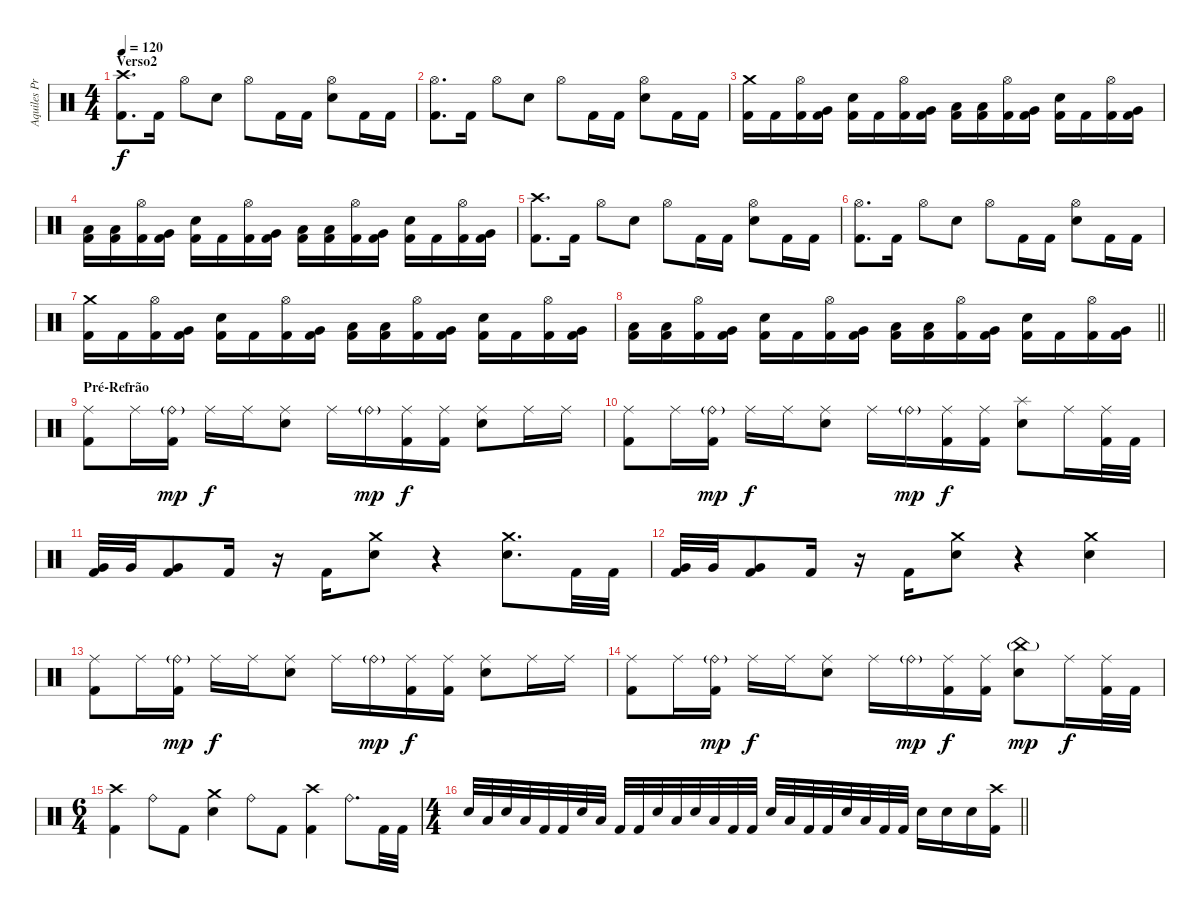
\track ("Aquiles Priester" "Aquiles Pr") {instrument percussion}
\staff {score}
\articulation defaults
\ts (4 4)
\section ("" "Verso2")
\tempo 120
\clef neutral
\ks c
("Crash high (hit)" "Kick (hit) 2").8{d dy f} "Kick (hit) 2".16 "Hi-Hat (open)".8 "Electric Snare (hit)".8 "Hi-Hat (open)".8 "Kick (hit) 2".16 "Kick (hit) 2".16 ("Hi-Hat (open)" "Electric Snare (hit)").8 "Kick (hit) 2".16 "Kick (hit) 2".16 |
("Hi-Hat (open)" "Kick (hit) 2").8{d} "Kick (hit) 2".16 "Hi-Hat (open)".8 "Electric Snare (hit)".8 "Hi-Hat (open)".8 "Kick (hit) 2".16 "Kick (hit) 2".16 ("Hi-Hat (open)" "Electric Snare (hit)").8 "Kick (hit) 2".16 "Kick (hit) 2".16 |
("Crash medium (hit)" "Kick (hit) 2").16 "Kick (hit) 2".16 ("Hi-Hat (open)" "Kick (hit) 2").16 ("Very Low Tom (hit)" "Kick (hit) 2").16 ("Electric Snare (hit)" "Kick (hit) 2").16 "Kick (hit) 2".16 ("Hi-Hat (open)" "Kick (hit) 2").16 ("Very Low Tom (hit)" "Kick (hit) 2").16 ("Low Tom (hit)" "Kick (hit) 2").16 ("Low Tom (hit)" "Kick (hit) 2").16 ("Hi-Hat (open)" "Kick (hit) 2").16 ("Very Low Tom (hit)" "Kick (hit) 2").16 ("Electric Snare (hit)" "Kick (hit) 2").16 "Kick (hit) 2".16 ("Hi-Hat (open)" "Kick (hit) 2").16 ("Very Low Tom (hit)" "Kick (hit) 2").16 |
("Low Tom (hit)" "Kick (hit) 2").16 ("Low Tom (hit)" "Kick (hit) 2").16 ("Hi-Hat (open)" "Kick (hit) 2").16 ("Very Low Tom (hit)" "Kick (hit) 2").16 ("Electric Snare (hit)" "Kick (hit) 2").16 "Kick (hit) 2".16 ("Hi-Hat (open)" "Kick (hit) 2").16 ("Very Low Tom (hit)" "Kick (hit) 2").16 ("Low Tom (hit)" "Kick (hit) 2").16 ("Low Tom (hit)" "Kick (hit) 2").16 ("Hi-Hat (open)" "Kick (hit) 2").16 ("Very Low Tom (hit)" "Kick (hit) 2").16 ("Electric Snare (hit)" "Kick (hit) 2").16 "Kick (hit) 2".16 ("Hi-Hat (open)" "Kick (hit) 2").16 ("Very Low Tom (hit)" "Kick (hit) 2").16 |
("Crash high (hit)" "Kick (hit) 2").8{d} "Kick (hit) 2".16 "Hi-Hat (open)".8 "Electric Snare (hit)".8 "Hi-Hat (open)".8 "Kick (hit) 2".16 "Kick (hit) 2".16 ("Hi-Hat (open)" "Electric Snare (hit)").8 "Kick (hit) 2".16 "Kick (hit) 2".16 |
("Hi-Hat (open)" "Kick (hit) 2").8{d} "Kick (hit) 2".16 "Hi-Hat (open)".8 "Electric Snare (hit)".8 "Hi-Hat (open)".8 "Kick (hit) 2".16 "Kick (hit) 2".16 ("Hi-Hat (open)" "Electric Snare (hit)").8 "Kick (hit) 2".16 "Kick (hit) 2".16 |
("Crash medium (hit)" "Kick (hit) 2").16 "Kick (hit) 2".16 ("Hi-Hat (open)" "Kick (hit) 2").16 ("Very Low Tom (hit)" "Kick (hit) 2").16 ("Electric Snare (hit)" "Kick (hit) 2").16 "Kick (hit) 2".16 ("Hi-Hat (open)" "Kick (hit) 2").16 ("Very Low Tom (hit)" "Kick (hit) 2").16 ("Low Tom (hit)" "Kick (hit) 2").16 ("Low Tom (hit)" "Kick (hit) 2").16 ("Hi-Hat (open)" "Kick (hit) 2").16 ("Very Low Tom (hit)" "Kick (hit) 2").16 ("Electric Snare (hit)" "Kick (hit) 2").16 "Kick (hit) 2".16 ("Hi-Hat (open)" "Kick (hit) 2").16 ("Very Low Tom (hit)" "Kick (hit) 2").16 |
\barLineRight lightlight
("Low Tom (hit)" "Kick (hit) 2").16 ("Low Tom (hit)" "Kick (hit) 2").16 ("Hi-Hat (open)" "Kick (hit) 2").16 ("Very Low Tom (hit)" "Kick (hit) 2").16 ("Electric Snare (hit)" "Kick (hit) 2").16 "Kick (hit) 2".16 ("Hi-Hat (open)" "Kick (hit) 2").16 ("Very Low Tom (hit)" "Kick (hit) 2").16 ("Low Tom (hit)" "Kick (hit) 2").16 ("Low Tom (hit)" "Kick (hit) 2").16 ("Hi-Hat (open)" "Kick (hit) 2").16 ("Very Low Tom (hit)" "Kick (hit) 2").16 ("Electric Snare (hit)" "Kick (hit) 2").16 "Kick (hit) 2".16 ("Hi-Hat (open)" "Kick (hit) 2").16 ("Very Low Tom (hit)" "Kick (hit) 2").16 |
\section ("" "Pré-Refrão")
("Ride (middle)" "Kick (hit) 2").8 "Ride (middle)".16 ("Ride (bell)"{g} "Kick (hit) 2").16{dy mp} "Ride (middle)".16{dy f} "Ride (middle)".16 ("Ride (middle)" "Electric Snare (hit)").8 "Ride (middle)".16 "Ride (bell)"{g}.16{dy mp} ("Ride (middle)" "Kick (hit) 2").16{dy f} ("Ride (middle)" "Kick (hit) 2").16 ("Ride (middle)" "Electric Snare (hit)").8 "Ride (middle)".16 "Ride (middle)".16 |
("Ride (middle)" "Kick (hit) 2").8 "Ride (middle)".16 ("Ride (bell)"{g} "Kick (hit) 2").16{dy mp} "Ride (middle)".16{dy f} "Ride (middle)".16 ("Ride (middle)" "Electric Snare (hit)").8 "Ride (middle)".16 "Ride (bell)"{g}.16{dy mp} ("Ride (middle)" "Kick (hit) 2").16{dy f} ("Ride (middle)" "Kick (hit) 2").16 ("Splash (hit)" "Electric Snare (hit)").8 "Ride (middle)".16 ("Ride (middle)" "Kick (hit) 2").32 "Kick (hit) 2".32 |
("Very Low Tom (hit)" "Kick (hit) 2").32 "Very Low Tom (hit)".32 ("Very Low Tom (hit)" "Kick (hit) 2").8 "Kick (hit) 2".16 r.16 "Kick (hit) 2".16 ("Crash medium (hit)" "Electric Snare (hit)").8 r.4 ("Crash medium (hit)" "Electric Snare (hit)").8{d} "Kick (hit) 2".32 "Kick (hit) 2".32 |
("Very Low Tom (hit)" "Kick (hit) 2").32 "Very Low Tom (hit)".32 ("Very Low Tom (hit)" "Kick (hit) 2").8 "Kick (hit) 2".16 r.16 "Kick (hit) 2".16 ("Crash medium (hit)" "Electric Snare (hit)").8 r.4 ("Crash medium (hit)" "Electric Snare (hit)").4 |
("Ride (middle)" "Kick (hit) 2").8 "Ride (middle)".16 ("Ride (bell)"{g} "Kick (hit) 2").16{dy mp} "Ride (middle)".16{dy f} "Ride (middle)".16 ("Ride (middle)" "Electric Snare (hit)").8 "Ride (middle)".16 "Ride (bell)"{g}.16{dy mp} ("Ride (middle)" "Kick (hit) 2").16{dy f} ("Ride (middle)" "Kick (hit) 2").16 ("Ride (middle)" "Electric Snare (hit)").8 "Ride (middle)".16 "Ride (middle)".16 |
("Ride (middle)" "Kick (hit) 2").8 "Ride (middle)".16 ("Ride (bell)"{g} "Kick (hit) 2").16{dy mp} "Ride (middle)".16{dy f} "Ride (middle)".16 ("Ride (middle)" "Electric Snare (hit)").8 "Ride (middle)".16 "Ride (bell)"{g}.16{dy mp} ("Ride (middle)" "Kick (hit) 2").16{dy f} ("Ride (middle)" "Kick (hit) 2").16 ("China (hit)"{g} "Electric Snare (hit)").8{dy mp} "Ride (middle)".16{dy f} ("Ride (middle)" "Kick (hit) 2").32 "Kick (hit) 2".32 |
\ts (6 4)
("Crash high (hit)" "Kick (hit) 2").4 "Ride (bell)".8 "Kick (hit) 2".8 ("Crash medium (hit)" "Electric Snare (hit)").4 "Ride (bell)".8 "Kick (hit) 2".8 ("Crash high (hit)" "Kick (hit) 2").4 "Ride (bell)".8{d} "Kick (hit) 2".32 "Kick (hit) 2".32 |
\ts (4 4)
\barLineRight lightlight "Electric Snare (hit)".32 "Low Tom (hit)".32 "Electric Snare (hit)".32 "Low Tom (hit)".32 "Kick (hit) 2".32 "Kick (hit) 2".32 "Electric Snare (hit)".32 "Low Tom (hit)".32 "Kick (hit) 2".32 "Kick (hit) 2".32 "Electric Snare (hit)".32 "Low Tom (hit)".32 "Electric Snare (hit)".32 "Low Tom (hit)".32 "Kick (hit) 2".32 "Kick (hit) 2".32 "Electric Snare (hit)".32 "Low Tom (hit)".32 "Kick (hit) 2".32 "Kick (hit) 2".32 "Electric Snare (hit)".32 "Low Tom (hit)".32 "Kick (hit) 2".32 "Kick (hit) 2".32 "Electric Snare (hit)".16 "Electric Snare (hit)".16 "Electric Snare (hit)".16
("Crash high (hit)" "Kick (hit) 2").16
